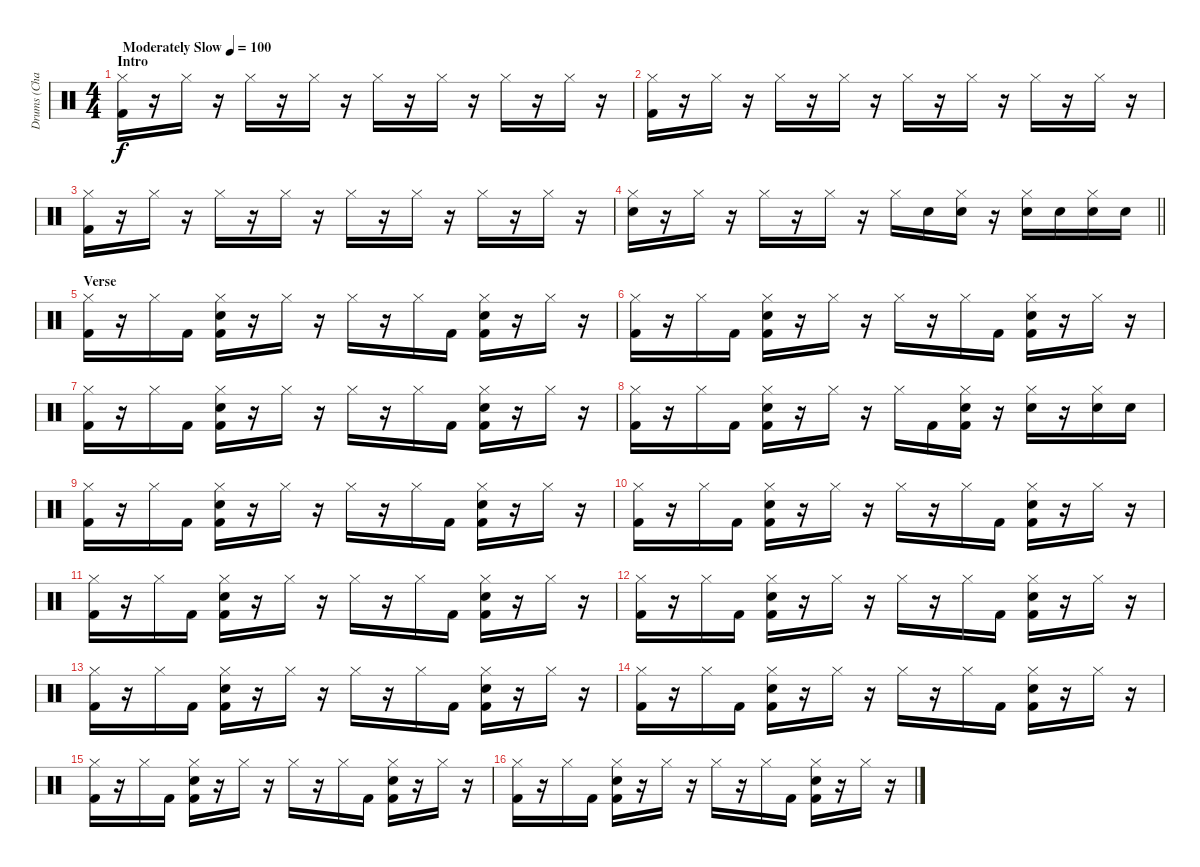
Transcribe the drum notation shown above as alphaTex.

\track ("Drums (Chad Smith)" "Drums (Cha") {instrument percussion}
\staff {score}
\articulation defaults
\ts (4 4)
\section ("" "Intro")
\tempo (100 "Moderately Slow")
\clef neutral
\ks c
("Hi-Hat (closed)" "Kick (hit) 2").16{dy f} r.16 "Hi-Hat (closed)".16 r.16 "Hi-Hat (closed)".16 r.16 "Hi-Hat (closed)".16 r.16 "Hi-Hat (closed)".16 r.16 "Hi-Hat (closed)".16 r.16 "Hi-Hat (closed)".16 r.16 "Hi-Hat (closed)".16 r.16 |
("Hi-Hat (closed)" "Kick (hit) 2").16 r.16 "Hi-Hat (closed)".16 r.16 "Hi-Hat (closed)".16 r.16 "Hi-Hat (closed)".16 r.16 "Hi-Hat (closed)".16 r.16 "Hi-Hat (closed)".16 r.16 "Hi-Hat (closed)".16 r.16 "Hi-Hat (closed)".16 r.16 |
("Hi-Hat (closed)" "Kick (hit) 2").16 r.16 "Hi-Hat (closed)".16 r.16 "Hi-Hat (closed)".16 r.16 "Hi-Hat (closed)".16 r.16 "Hi-Hat (closed)".16 r.16 "Hi-Hat (closed)".16 r.16 "Hi-Hat (closed)".16 r.16 "Hi-Hat (closed)".16 r.16 |
\barLineRight lightlight
("Hi-Hat (closed)" "Electric Snare (hit)").16 r.16 "Hi-Hat (closed)".16 r.16 "Hi-Hat (closed)".16 r.16 "Hi-Hat (closed)".16 r.16 "Hi-Hat (closed)".16 "Electric Snare (hit)".16 ("Hi-Hat (closed)" "Electric Snare (hit)").16 r.16 ("Hi-Hat (closed)" "Electric Snare (hit)").16 "Electric Snare (hit)".16 ("Hi-Hat (closed)" "Electric Snare (hit)").16 "Electric Snare (hit)".16 |
\section ("" "Verse")
("Hi-Hat (closed)" "Kick (hit) 2").16 r.16 "Hi-Hat (closed)".16 "Kick (hit) 2".16 ("Hi-Hat (closed)" "Electric Snare (hit)" "Kick (hit) 2").16 r.16 "Hi-Hat (closed)".16 r.16 "Hi-Hat (closed)".16 r.16 "Hi-Hat (closed)".16 "Kick (hit) 2".16 ("Hi-Hat (closed)" "Electric Snare (hit)" "Kick (hit) 2").16 r.16 "Hi-Hat (closed)".16 r.16 |
("Hi-Hat (closed)" "Kick (hit) 2").16 r.16 "Hi-Hat (closed)".16 "Kick (hit) 2".16 ("Hi-Hat (closed)" "Electric Snare (hit)" "Kick (hit) 2").16 r.16 "Hi-Hat (closed)".16 r.16 "Hi-Hat (closed)".16 r.16 "Hi-Hat (closed)".16 "Kick (hit) 2".16 ("Hi-Hat (closed)" "Electric Snare (hit)" "Kick (hit) 2").16 r.16 "Hi-Hat (closed)".16 r.16 |
("Hi-Hat (closed)" "Kick (hit) 2").16 r.16 "Hi-Hat (closed)".16 "Kick (hit) 2".16 ("Hi-Hat (closed)" "Electric Snare (hit)" "Kick (hit) 2").16 r.16 "Hi-Hat (closed)".16 r.16 "Hi-Hat (closed)".16 r.16 "Hi-Hat (closed)".16 "Kick (hit) 2".16 ("Hi-Hat (closed)" "Electric Snare (hit)" "Kick (hit) 2").16 r.16 "Hi-Hat (closed)".16 r.16 |
("Hi-Hat (closed)" "Kick (hit) 2").16 r.16 "Hi-Hat (closed)".16 "Kick (hit) 2".16 ("Hi-Hat (closed)" "Electric Snare (hit)" "Kick (hit) 2").16 r.16 "Hi-Hat (closed)".16 r.16 "Hi-Hat (closed)".16 "Kick (hit) 2".16 ("Hi-Hat (closed)" "Electric Snare (hit)" "Kick (hit) 2").16 r.16 ("Hi-Hat (closed)" "Electric Snare (hit)").16 r.16 ("Hi-Hat (closed)" "Electric Snare (hit)").16 "Electric Snare (hit)".16 |
("Hi-Hat (closed)" "Kick (hit) 2").16 r.16 "Hi-Hat (closed)".16 "Kick (hit) 2".16 ("Hi-Hat (closed)" "Electric Snare (hit)" "Kick (hit) 2").16 r.16 "Hi-Hat (closed)".16 r.16 "Hi-Hat (closed)".16 r.16 "Hi-Hat (closed)".16 "Kick (hit) 2".16 ("Hi-Hat (closed)" "Electric Snare (hit)" "Kick (hit) 2").16 r.16 "Hi-Hat (closed)".16 r.16 |
("Hi-Hat (closed)" "Kick (hit) 2").16 r.16 "Hi-Hat (closed)".16 "Kick (hit) 2".16 ("Hi-Hat (closed)" "Electric Snare (hit)" "Kick (hit) 2").16 r.16 "Hi-Hat (closed)".16 r.16 "Hi-Hat (closed)".16 r.16 "Hi-Hat (closed)".16 "Kick (hit) 2".16 ("Hi-Hat (closed)" "Electric Snare (hit)" "Kick (hit) 2").16 r.16 "Hi-Hat (closed)".16 r.16 |
("Hi-Hat (closed)" "Kick (hit) 2").16 r.16 "Hi-Hat (closed)".16 "Kick (hit) 2".16 ("Hi-Hat (closed)" "Electric Snare (hit)" "Kick (hit) 2").16 r.16 "Hi-Hat (closed)".16 r.16 "Hi-Hat (closed)".16 r.16 "Hi-Hat (closed)".16 "Kick (hit) 2".16 ("Hi-Hat (closed)" "Electric Snare (hit)" "Kick (hit) 2").16 r.16 "Hi-Hat (closed)".16 r.16 |
("Hi-Hat (closed)" "Kick (hit) 2").16 r.16 "Hi-Hat (closed)".16 "Kick (hit) 2".16 ("Hi-Hat (closed)" "Electric Snare (hit)" "Kick (hit) 2").16 r.16 "Hi-Hat (closed)".16 r.16 "Hi-Hat (closed)".16 r.16 "Hi-Hat (closed)".16 "Kick (hit) 2".16 ("Hi-Hat (closed)" "Electric Snare (hit)" "Kick (hit) 2").16 r.16 "Hi-Hat (closed)".16 r.16 |
("Hi-Hat (closed)" "Kick (hit) 2").16 r.16 "Hi-Hat (closed)".16 "Kick (hit) 2".16 ("Hi-Hat (closed)" "Electric Snare (hit)" "Kick (hit) 2").16 r.16 "Hi-Hat (closed)".16 r.16 "Hi-Hat (closed)".16 r.16 "Hi-Hat (closed)".16 "Kick (hit) 2".16 ("Hi-Hat (closed)" "Electric Snare (hit)" "Kick (hit) 2").16 r.16 "Hi-Hat (closed)".16 r.16 |
("Hi-Hat (closed)" "Kick (hit) 2").16 r.16 "Hi-Hat (closed)".16 "Kick (hit) 2".16 ("Hi-Hat (closed)" "Electric Snare (hit)" "Kick (hit) 2").16 r.16 "Hi-Hat (closed)".16 r.16 "Hi-Hat (closed)".16 r.16 "Hi-Hat (closed)".16 "Kick (hit) 2".16 ("Hi-Hat (closed)" "Electric Snare (hit)" "Kick (hit) 2").16 r.16 "Hi-Hat (closed)".16 r.16 |
("Hi-Hat (closed)" "Kick (hit) 2").16 r.16 "Hi-Hat (closed)".16 "Kick (hit) 2".16 ("Hi-Hat (closed)" "Electric Snare (hit)" "Kick (hit) 2").16 r.16 "Hi-Hat (closed)".16 r.16 "Hi-Hat (closed)".16 r.16 "Hi-Hat (closed)".16 "Kick (hit) 2".16 ("Hi-Hat (closed)" "Electric Snare (hit)" "Kick (hit) 2").16 r.16 "Hi-Hat (closed)".16 r.16 |
("Hi-Hat (closed)" "Kick (hit) 2").16 r.16 "Hi-Hat (closed)".16 "Kick (hit) 2".16 ("Hi-Hat (closed)" "Electric Snare (hit)" "Kick (hit) 2").16 r.16 "Hi-Hat (closed)".16 r.16 "Hi-Hat (closed)".16 r.16 "Hi-Hat (closed)".16 "Kick (hit) 2".16 ("Hi-Hat (closed)" "Electric Snare (hit)" "Kick (hit) 2").16 r.16 "Hi-Hat (closed)".16 r.16
